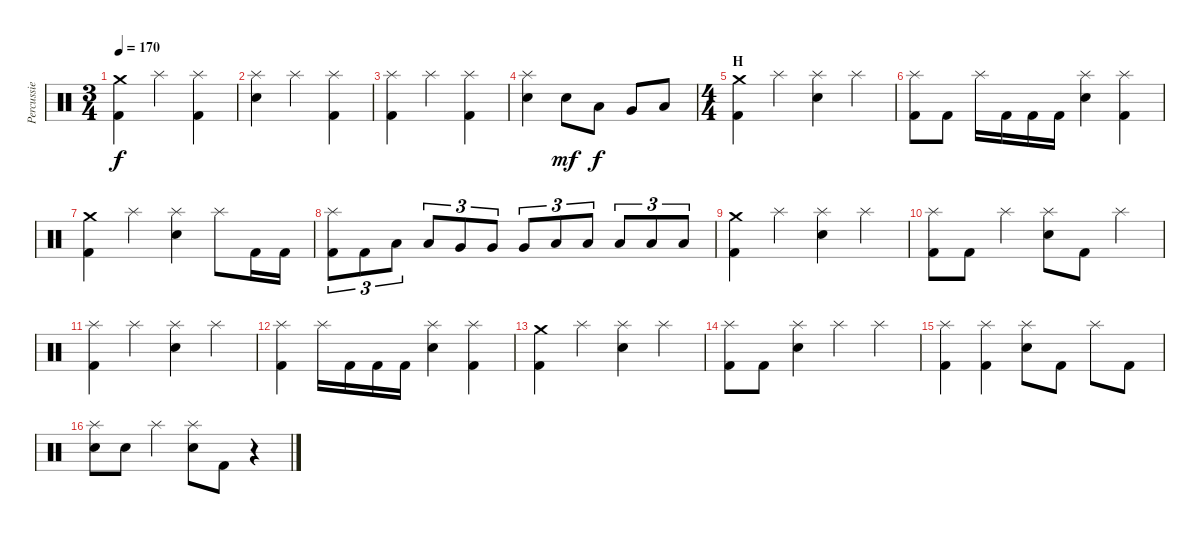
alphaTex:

\track ("Percussie" "Percussie") {instrument percussion}
\staff {score}
\articulation defaults
\ts (3 4)
\tempo 170
\clef neutral
\ks c
("Crash medium (hit)" "Kick (hit) 2").4{dy f} "Splash (hit)".4 ("Splash (hit)" "Kick (hit) 2").4 |
("Splash (hit)" "Electric Snare (hit)").4 "Splash (hit)".4 ("Splash (hit)" "Kick (hit) 2").4 |
("Splash (hit)" "Kick (hit) 2").4 "Splash (hit)".4 ("Splash (hit)" "Kick (hit) 2").4 |
("Splash (hit)" "Electric Snare (hit)").4 "Electric Snare (hit)".8{dy mf} "Low Tom (hit)".8{dy f} "Very Low Tom (hit)".8 "Low Floor Tom (hit)".8 |
\ts (4 4)
\section ("" "H")
("Crash medium (hit)" "Kick (hit) 2").4 "Splash (hit)".4 ("Splash (hit)" "Electric Snare (hit)").4 "Splash (hit)".4 |
("Splash (hit)" "Kick (hit) 2").8 "Kick (hit) 2".8 "Splash (hit)".16 "Kick (hit) 2".16 "Kick (hit) 2".16 "Kick (hit) 2".16 ("Splash (hit)" "Electric Snare (hit)").4 ("Splash (hit)" "Kick (hit) 2").4 |
("Crash medium (hit)" "Kick (hit) 2").4 "Splash (hit)".4 ("Splash (hit)" "Electric Snare (hit)").4 "Splash (hit)".8 "Kick (hit) 2".16 "Kick (hit) 2".16 |
("Splash (hit)" "Kick (hit) 2").8{tu (3 2)} "Kick (hit) 2".8{tu (3 2)} "Low Tom (hit)".8{tu (3 2)} "Low Tom (hit)".8{tu (3 2)} "Very Low Tom (hit)".8{tu (3 2)} "Very Low Tom (hit)".8{tu (3 2)} "Very Low Tom (hit)".8{tu (3 2)} "Low Floor Tom (hit)".8{tu (3 2)} "Low Floor Tom (hit)".8{tu (3 2)} "Low Floor Tom (hit)".8{tu (3 2)} "Low Floor Tom (hit)".8{tu (3 2)} "Low Floor Tom (hit)".8{tu (3 2)} |
("Crash medium (hit)" "Kick (hit) 2").4 "Splash (hit)".4 ("Splash (hit)" "Electric Snare (hit)").4 "Splash (hit)".4 |
("Splash (hit)" "Kick (hit) 2").8 "Kick (hit) 2".8 "Splash (hit)".4 ("Splash (hit)" "Electric Snare (hit)").8 "Kick (hit) 2".8 "Splash (hit)".4 |
("Splash (hit)" "Kick (hit) 2").4 "Splash (hit)".4 ("Splash (hit)" "Electric Snare (hit)").4 "Splash (hit)".4 |
("Splash (hit)" "Kick (hit) 2").4 "Splash (hit)".16 "Kick (hit) 2".16 "Kick (hit) 2".16 "Kick (hit) 2".16 ("Splash (hit)" "Electric Snare (hit)").4 ("Splash (hit)" "Kick (hit) 2").4 |
("Crash medium (hit)" "Kick (hit) 2").4 "Splash (hit)".4 ("Splash (hit)" "Electric Snare (hit)").4 "Splash (hit)".4 |
("Splash (hit)" "Kick (hit) 2").8 "Kick (hit) 2".8 ("Splash (hit)" "Electric Snare (hit)").4 "Splash (hit)".4 "Splash (hit)".4 |
("Splash (hit)" "Kick (hit) 2").4 ("Splash (hit)" "Kick (hit) 2").4 ("Splash (hit)" "Electric Snare (hit)").8 "Kick (hit) 2".8 "Splash (hit)".8 "Kick (hit) 2".8 |
("Splash (hit)" "Electric Snare (hit)").8 "Electric Snare (hit)".8 "Splash (hit)".4 ("Splash (hit)" "Electric Snare (hit)").8 "Kick (hit) 2".8 r.4
